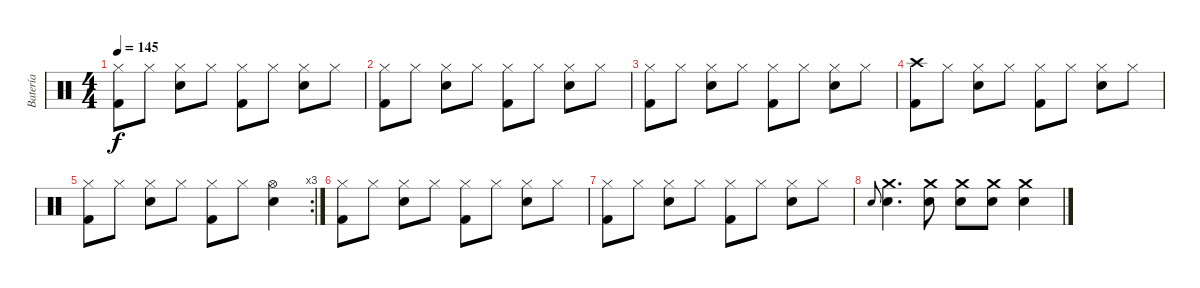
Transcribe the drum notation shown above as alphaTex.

\track ("Batería" "Batería") {instrument percussion}
\staff {score}
\articulation defaults
\ts (4 4)
\tempo 145
\clef neutral
\ks c
("Hi-Hat (closed)" "Kick (hit) 2").8{dy f} "Hi-Hat (closed)".8 ("Hi-Hat (closed)" "Snare (hit) 2").8 "Hi-Hat (closed)".8 ("Hi-Hat (closed)" "Kick (hit) 2").8 "Hi-Hat (closed)".8 ("Hi-Hat (closed)" "Snare (hit) 2").8 "Hi-Hat (closed)".8 |
("Hi-Hat (closed)" "Kick (hit) 2").8 "Hi-Hat (closed)".8 ("Hi-Hat (closed)" "Snare (hit) 2").8 "Hi-Hat (closed)".8 ("Hi-Hat (closed)" "Kick (hit) 2").8 "Hi-Hat (closed)".8 ("Hi-Hat (closed)" "Snare (hit) 2").8 "Hi-Hat (closed)".8 |
("Hi-Hat (closed)" "Kick (hit) 2").8 "Hi-Hat (closed)".8 ("Hi-Hat (closed)" "Snare (hit) 2").8 "Hi-Hat (closed)".8 ("Hi-Hat (closed)" "Kick (hit) 2").8 "Hi-Hat (closed)".8 ("Hi-Hat (closed)" "Snare (hit) 2").8 "Hi-Hat (closed)".8 |
("Crash high (hit)" "Kick (hit) 2").8 "Hi-Hat (closed)".8 ("Hi-Hat (closed)" "Snare (hit) 2").8 "Hi-Hat (closed)".8 ("Hi-Hat (closed)" "Kick (hit) 2").8 "Hi-Hat (closed)".8 ("Hi-Hat (closed)" "Snare (hit) 2").8 "Hi-Hat (closed)".8 |
\rc 3
("Hi-Hat (closed)" "Kick (hit) 2").8 "Hi-Hat (closed)".8 ("Hi-Hat (closed)" "Snare (hit) 2").8 "Hi-Hat (closed)".8 ("Hi-Hat (closed)" "Kick (hit) 2").8 "Hi-Hat (closed)".8 ("Hi-Hat (open)" "Snare (hit) 2").4 |
("Hi-Hat (closed)" "Kick (hit) 2").8 "Hi-Hat (closed)".8 ("Hi-Hat (closed)" "Snare (hit) 2").8 "Hi-Hat (closed)".8 ("Hi-Hat (closed)" "Kick (hit) 2").8 "Hi-Hat (closed)".8 ("Hi-Hat (closed)" "Snare (hit) 2").8 "Hi-Hat (closed)".8 |
("Hi-Hat (closed)" "Kick (hit) 2").8 "Hi-Hat (closed)".8 ("Hi-Hat (closed)" "Snare (hit) 2").8 "Hi-Hat (closed)".8 ("Hi-Hat (closed)" "Kick (hit) 2").8 "Hi-Hat (closed)".8 ("Hi-Hat (closed)" "Snare (hit) 2").8 "Hi-Hat (closed)".8 |
"Snare (hit) 2".8{gr onbeat} ("Crash medium (hit)" "Snare (hit) 2").4{d} ("Crash medium (hit)" "Snare (hit) 2").8 ("Crash medium (hit)" "Snare (hit) 2").8 ("Crash medium (hit)" "Snare (hit) 2").8 ("Crash medium (hit)" "Snare (hit) 2").4
